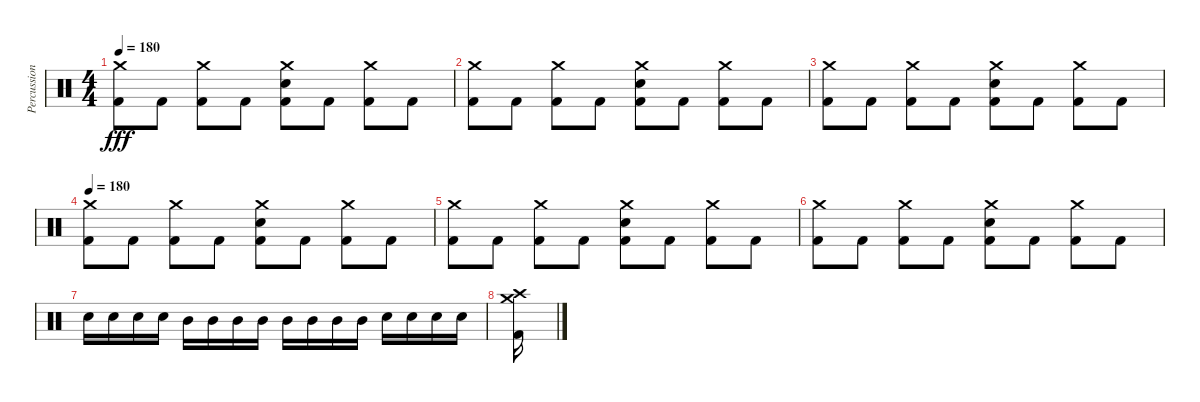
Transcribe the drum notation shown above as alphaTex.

\track ("Percussion" "Percussion") {instrument percussion}
\staff {score}
\articulation defaults
\ts (4 4)
\tempo 180
\clef neutral
\ks c
("Crash medium (hit)" "Kick (hit) 2").8{dy fff} "Kick (hit) 2".8 ("Crash medium (hit)" "Kick (hit) 2").8 "Kick (hit) 2".8 ("Crash medium (hit)" "Electric Snare (hit)" "Kick (hit) 2").8 "Kick (hit) 2".8 ("Crash medium (hit)" "Kick (hit) 2").8 "Kick (hit) 2".8 |
("Crash medium (hit)" "Kick (hit) 2").8 "Kick (hit) 2".8 ("Crash medium (hit)" "Kick (hit) 2").8 "Kick (hit) 2".8 ("Crash medium (hit)" "Electric Snare (hit)" "Kick (hit) 2").8 "Kick (hit) 2".8 ("Crash medium (hit)" "Kick (hit) 2").8 "Kick (hit) 2".8 |
("Crash medium (hit)" "Kick (hit) 2").8 "Kick (hit) 2".8 ("Crash medium (hit)" "Kick (hit) 2").8 "Kick (hit) 2".8 ("Crash medium (hit)" "Electric Snare (hit)" "Kick (hit) 2").8 "Kick (hit) 2".8 ("Crash medium (hit)" "Kick (hit) 2").8 "Kick (hit) 2".8 |
\tempo 180
("Crash medium (hit)" "Kick (hit) 2").8 "Kick (hit) 2".8 ("Crash medium (hit)" "Kick (hit) 2").8 "Kick (hit) 2".8 ("Crash medium (hit)" "Electric Snare (hit)" "Kick (hit) 2").8 "Kick (hit) 2".8 ("Crash medium (hit)" "Kick (hit) 2").8 "Kick (hit) 2".8 |
("Crash medium (hit)" "Kick (hit) 2").8 "Kick (hit) 2".8 ("Crash medium (hit)" "Kick (hit) 2").8 "Kick (hit) 2".8 ("Crash medium (hit)" "Electric Snare (hit)" "Kick (hit) 2").8 "Kick (hit) 2".8 ("Crash medium (hit)" "Kick (hit) 2").8 "Kick (hit) 2".8 |
("Crash medium (hit)" "Kick (hit) 2").8 "Kick (hit) 2".8 ("Crash medium (hit)" "Kick (hit) 2").8 "Kick (hit) 2".8 ("Crash medium (hit)" "Electric Snare (hit)" "Kick (hit) 2").8 "Kick (hit) 2".8 ("Crash medium (hit)" "Kick (hit) 2").8 "Kick (hit) 2".8 |
"Electric Snare (hit)".16 "Electric Snare (hit)".16 "Electric Snare (hit)".16 "Electric Snare (hit)".16 "Mid Tom (hit)".16 "Mid Tom (hit)".16 "Mid Tom (hit)".16 "Mid Tom (hit)".16 "Mid Tom (hit)".16 "Mid Tom (hit)".16 "Mid Tom (hit)".16 "Mid Tom (hit)".16 "Electric Snare (hit)".16 "Electric Snare (hit)".16 "Electric Snare (hit)".16 "Electric Snare (hit)".16 |
("Crash high (hit)" "Crash medium (hit)" "Kick (hit) 2").16
